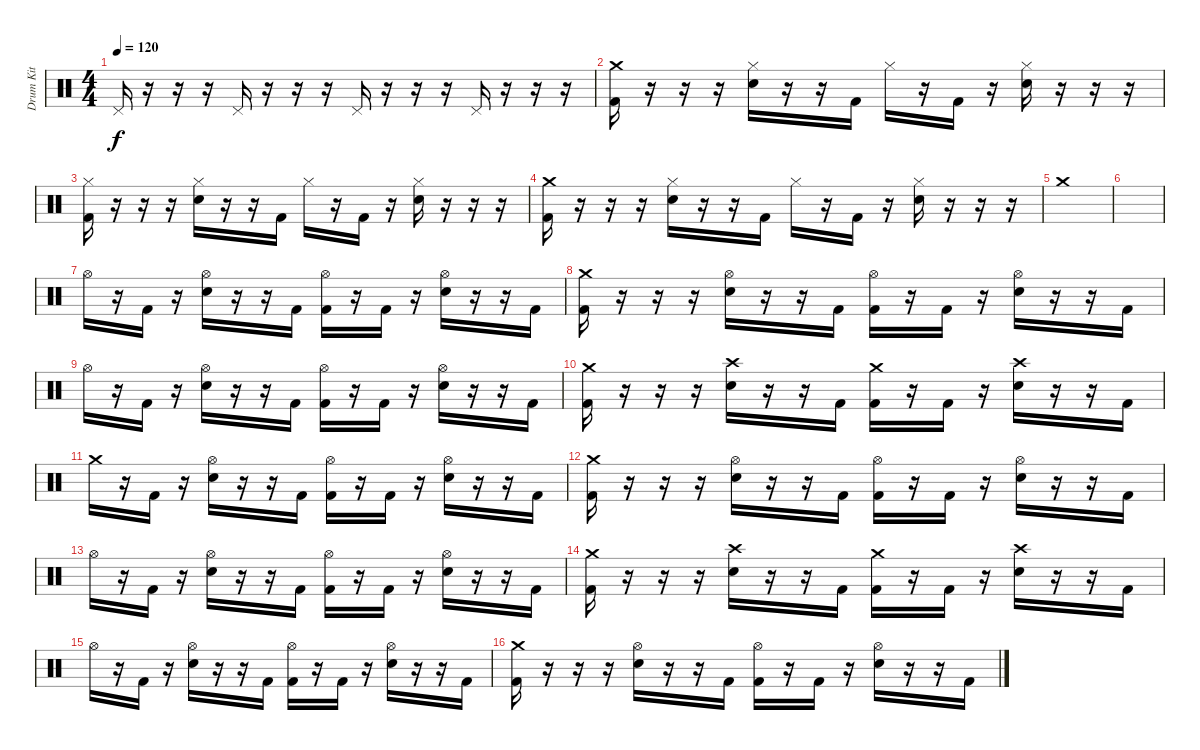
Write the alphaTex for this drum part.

\track ("Drum Kit" "Drum Kit") {instrument percussion}
\staff {score}
\articulation defaults
\ts (4 4)
\tempo 120
\clef neutral
\ks c "Pedal Hi-Hat (hit)".16{dy f}
r.16 r.16 r.16 "Pedal Hi-Hat (hit)".16 r.16 r.16 r.16 "Pedal Hi-Hat (hit)".16 r.16 r.16 r.16 "Pedal Hi-Hat (hit)".16 r.16 r.16 r.16 |
("Crash medium (hit)" "Kick (hit) 2").16 r.16 r.16 r.16 ("Hi-Hat (closed)" "Snare (hit) 2").16 r.16 r.16 "Kick (hit) 2".16 "Hi-Hat (closed)".16 r.16 "Kick (hit) 2".16 r.16 ("Hi-Hat (closed)" "Snare (hit) 2").16 r.16 r.16 r.16 |
("Hi-Hat (closed)" "Kick (hit) 2").16 r.16 r.16 r.16 ("Hi-Hat (closed)" "Snare (hit) 2").16 r.16 r.16 "Kick (hit) 2".16 "Hi-Hat (closed)".16 r.16 "Kick (hit) 2".16 r.16 ("Hi-Hat (closed)" "Snare (hit) 2").16 r.16 r.16 r.16 |
("Crash medium (hit)" "Kick (hit) 2").16 r.16 r.16 r.16 ("Hi-Hat (closed)" "Snare (hit) 2").16 r.16 r.16 "Kick (hit) 2".16 "Hi-Hat (closed)".16 r.16 "Kick (hit) 2".16 r.16 ("Hi-Hat (closed)" "Snare (hit) 2").16 r.16 r.16 r.16 |
"Crash medium (hit)".1 |
|
"Hi-Hat (open)".16 r.16 "Kick (hit) 2".16 r.16 ("Hi-Hat (open)" "Snare (hit) 2").16 r.16 r.16 "Kick (hit) 2".16 ("Hi-Hat (open)" "Kick (hit) 2").16 r.16 "Kick (hit) 2".16 r.16 ("Hi-Hat (open)" "Snare (hit) 2").16 r.16 r.16 "Kick (hit) 2".16 |
("Crash medium (hit)" "Kick (hit) 2").16 r.16 r.16 r.16 ("Hi-Hat (open)" "Snare (hit) 2").16 r.16 r.16 "Kick (hit) 2".16 ("Hi-Hat (open)" "Kick (hit) 2").16 r.16 "Kick (hit) 2".16 r.16 ("Hi-Hat (open)" "Snare (hit) 2").16 r.16 r.16 "Kick (hit) 2".16 |
"Hi-Hat (open)".16 r.16 "Kick (hit) 2".16 r.16 ("Hi-Hat (open)" "Snare (hit) 2").16 r.16 r.16 "Kick (hit) 2".16 ("Hi-Hat (open)" "Kick (hit) 2").16 r.16 "Kick (hit) 2".16 r.16 ("Hi-Hat (open)" "Snare (hit) 2").16 r.16 r.16 "Kick (hit) 2".16 |
("Crash medium (hit)" "Kick (hit) 2").16 r.16 r.16 r.16 ("Crash high (hit)" "Snare (hit) 2").16 r.16 r.16 "Kick (hit) 2".16 ("Crash medium (hit)" "Kick (hit) 2").16 r.16 "Kick (hit) 2".16 r.16 ("Crash high (hit)" "Snare (hit) 2").16 r.16 r.16 "Kick (hit) 2".16 |
"Crash medium (hit)".16 r.16 "Kick (hit) 2".16 r.16 ("Hi-Hat (open)" "Snare (hit) 2").16 r.16 r.16 "Kick (hit) 2".16 ("Hi-Hat (open)" "Kick (hit) 2").16 r.16 "Kick (hit) 2".16 r.16 ("Hi-Hat (open)" "Snare (hit) 2").16 r.16 r.16 "Kick (hit) 2".16 |
("Crash medium (hit)" "Kick (hit) 2").16 r.16 r.16 r.16 ("Hi-Hat (open)" "Snare (hit) 2").16 r.16 r.16 "Kick (hit) 2".16 ("Hi-Hat (open)" "Kick (hit) 2").16 r.16 "Kick (hit) 2".16 r.16 ("Hi-Hat (open)" "Snare (hit) 2").16 r.16 r.16 "Kick (hit) 2".16 |
"Hi-Hat (open)".16 r.16 "Kick (hit) 2".16 r.16 ("Hi-Hat (open)" "Snare (hit) 2").16 r.16 r.16 "Kick (hit) 2".16 ("Hi-Hat (open)" "Kick (hit) 2").16 r.16 "Kick (hit) 2".16 r.16 ("Hi-Hat (open)" "Snare (hit) 2").16 r.16 r.16 "Kick (hit) 2".16 |
("Crash medium (hit)" "Kick (hit) 2").16 r.16 r.16 r.16 ("Crash high (hit)" "Snare (hit) 2").16 r.16 r.16 "Kick (hit) 2".16 ("Crash medium (hit)" "Kick (hit) 2").16 r.16 "Kick (hit) 2".16 r.16 ("Crash high (hit)" "Snare (hit) 2").16 r.16 r.16 "Kick (hit) 2".16 |
"Hi-Hat (open)".16 r.16 "Kick (hit) 2".16 r.16 ("Hi-Hat (open)" "Snare (hit) 2").16 r.16 r.16 "Kick (hit) 2".16 ("Hi-Hat (open)" "Kick (hit) 2").16 r.16 "Kick (hit) 2".16 r.16 ("Hi-Hat (open)" "Snare (hit) 2").16 r.16 r.16 "Kick (hit) 2".16 |
("Crash medium (hit)" "Kick (hit) 2").16 r.16 r.16 r.16 ("Hi-Hat (open)" "Snare (hit) 2").16 r.16 r.16 "Kick (hit) 2".16 ("Hi-Hat (open)" "Kick (hit) 2").16 r.16 "Kick (hit) 2".16 r.16 ("Hi-Hat (open)" "Snare (hit) 2").16 r.16 r.16 "Kick (hit) 2".16
